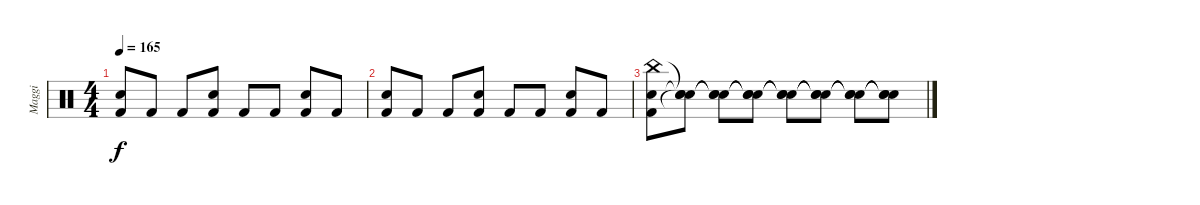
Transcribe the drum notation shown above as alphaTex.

\track ("Maggi" "Maggi") {instrument percussion}
\staff {score}
\articulation defaults
\ts (4 4)
\tempo 165
\clef neutral
\ks c
("Snare (hit) 2" "Kick (hit) 2").8{dy f} "Kick (hit) 2".8 "Kick (hit) 2".8 ("Snare (hit) 2" "Kick (hit) 2").8 "Kick (hit) 2".8 "Kick (hit) 2".8 ("Snare (hit) 2" "Kick (hit) 2").8 "Kick (hit) 2".8 |
("Snare (hit) 2" "Kick (hit) 2").8 "Kick (hit) 2".8 "Kick (hit) 2".8 ("Snare (hit) 2" "Kick (hit) 2").8 "Kick (hit) 2".8 "Kick (hit) 2".8 ("Snare (hit) 2" "Kick (hit) 2").8 "Kick (hit) 2".8 |
("China (hit)" "Snare (hit) 2" "Kick (hit) 2").8 ("Snare (hit)"{t} "Snare (hit)"{t} "Snare (hit)"{t}).8 ("Snare (hit)"{t} "Snare (hit)"{t} "Snare (hit)"{t}).8 ("Snare (hit)"{t} "Snare (hit)"{t} "Snare (hit)"{t}).8 ("Snare (hit)"{t} "Snare (hit)"{t} "Snare (hit)"{t}).8 ("Snare (hit)"{t} "Snare (hit)"{t} "Snare (hit)"{t}).8 ("Snare (hit)"{t} "Snare (hit)"{t} "Snare (hit)"{t}).8 ("Snare (hit)"{t} "Snare (hit)"{t} "Snare (hit)"{t}).8
